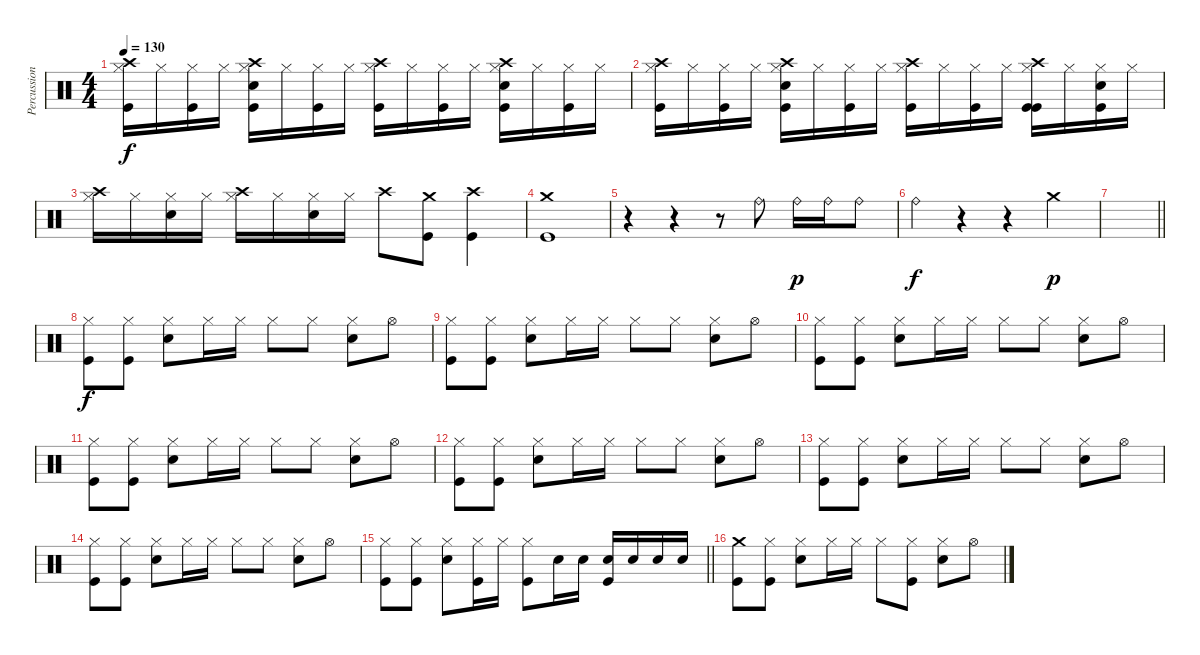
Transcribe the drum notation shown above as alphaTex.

\track ("Percussion" "Percussion") {instrument percussion}
\staff {score}
\articulation defaults
\ts (4 4)
\tempo 130
\clef neutral
\ks c
("Crash high (hit)" "Hi-Hat (closed)" "Kick (hit)").16{dy f} "Hi-Hat (closed)".16 ("Hi-Hat (closed)" "Kick (hit)").16 "Hi-Hat (closed)".16 ("Crash high (hit)" "Hi-Hat (closed)" "Electric Snare (hit)" "Kick (hit)").16 "Hi-Hat (closed)".16 ("Hi-Hat (closed)" "Kick (hit)").16 "Hi-Hat (closed)".16 ("Crash high (hit)" "Hi-Hat (closed)" "Kick (hit)").16 "Hi-Hat (closed)".16 ("Hi-Hat (closed)" "Kick (hit)").16 "Hi-Hat (closed)".16 ("Crash high (hit)" "Hi-Hat (closed)" "Electric Snare (hit)" "Kick (hit)").16 "Hi-Hat (closed)".16 ("Hi-Hat (closed)" "Kick (hit)").16 "Hi-Hat (closed)".16 |
("Crash high (hit)" "Hi-Hat (closed)" "Kick (hit)").16 "Hi-Hat (closed)".16 ("Hi-Hat (closed)" "Kick (hit)").16 "Hi-Hat (closed)".16 ("Crash high (hit)" "Hi-Hat (closed)" "Electric Snare (hit)" "Kick (hit)").16 "Hi-Hat (closed)".16 ("Hi-Hat (closed)" "Kick (hit)").16 "Hi-Hat (closed)".16 ("Crash high (hit)" "Hi-Hat (closed)" "Kick (hit)").16 "Hi-Hat (closed)".16 ("Hi-Hat (closed)" "Kick (hit)").16 "Hi-Hat (closed)".16 ("Crash high (hit)" "Hi-Hat (closed)" "Kick (hit)" "Kick (hit)").16 "Hi-Hat (closed)".16 ("Hi-Hat (closed)" "Electric Snare (hit)" "Kick (hit)").16 "Hi-Hat (closed)".16 |
("Crash high (hit)" "Hi-Hat (closed)").16 "Hi-Hat (closed)".16 ("Hi-Hat (closed)" "Electric Snare (hit)").16 "Hi-Hat (closed)".16 ("Crash high (hit)" "Hi-Hat (closed)").16 "Hi-Hat (closed)".16 ("Hi-Hat (closed)" "Electric Snare (hit)").16 "Hi-Hat (closed)".16 "Crash high (hit)".8 ("Crash medium (hit)" "Kick (hit)").8 ("Crash high (hit)" "Kick (hit)").4 |
("Crash medium (hit)" "Kick (hit)").1 |
r.4 r.4 r.8 "Ride (bell)".8 "Ride (bell)".16{dy p} "Ride (bell)".16 "Ride (bell)".8 |
"Ride (bell)".4{dy f} r.4 r.4 "Crash medium (hit)".4{dy p} |
\barLineRight lightlight
|
("Hi-Hat (closed)" "Kick (hit)").8{dy f} ("Hi-Hat (closed)" "Kick (hit)").8 ("Hi-Hat (closed)" "Electric Snare (hit)").8 "Hi-Hat (closed)".16 "Hi-Hat (closed)".16 "Hi-Hat (closed)".8 "Hi-Hat (closed)".8 ("Hi-Hat (closed)" "Electric Snare (hit)").8 "Hi-Hat (open)".8 |
("Hi-Hat (closed)" "Kick (hit)").8 ("Hi-Hat (closed)" "Kick (hit)").8 ("Hi-Hat (closed)" "Electric Snare (hit)").8 "Hi-Hat (closed)".16 "Hi-Hat (closed)".16 "Hi-Hat (closed)".8 "Hi-Hat (closed)".8 ("Hi-Hat (closed)" "Electric Snare (hit)").8 "Hi-Hat (open)".8 |
("Hi-Hat (closed)" "Kick (hit)").8 ("Hi-Hat (closed)" "Kick (hit)").8 ("Hi-Hat (closed)" "Electric Snare (hit)").8 "Hi-Hat (closed)".16 "Hi-Hat (closed)".16 "Hi-Hat (closed)".8 "Hi-Hat (closed)".8 ("Hi-Hat (closed)" "Electric Snare (hit)").8 "Hi-Hat (open)".8 |
("Hi-Hat (closed)" "Kick (hit)").8 ("Hi-Hat (closed)" "Kick (hit)").8 ("Hi-Hat (closed)" "Electric Snare (hit)").8 "Hi-Hat (closed)".16 "Hi-Hat (closed)".16 "Hi-Hat (closed)".8 "Hi-Hat (closed)".8 ("Hi-Hat (closed)" "Electric Snare (hit)").8 "Hi-Hat (open)".8 |
("Hi-Hat (closed)" "Kick (hit)").8 ("Hi-Hat (closed)" "Kick (hit)").8 ("Hi-Hat (closed)" "Electric Snare (hit)").8 "Hi-Hat (closed)".16 "Hi-Hat (closed)".16 "Hi-Hat (closed)".8 "Hi-Hat (closed)".8 ("Hi-Hat (closed)" "Electric Snare (hit)").8 "Hi-Hat (open)".8 |
("Hi-Hat (closed)" "Kick (hit)").8 ("Hi-Hat (closed)" "Kick (hit)").8 ("Hi-Hat (closed)" "Electric Snare (hit)").8 "Hi-Hat (closed)".16 "Hi-Hat (closed)".16 "Hi-Hat (closed)".8 "Hi-Hat (closed)".8 ("Hi-Hat (closed)" "Electric Snare (hit)").8 "Hi-Hat (open)".8 |
("Hi-Hat (closed)" "Kick (hit)").8 ("Hi-Hat (closed)" "Kick (hit)").8 ("Hi-Hat (closed)" "Electric Snare (hit)").8 "Hi-Hat (closed)".16 "Hi-Hat (closed)".16 "Hi-Hat (closed)".8 "Hi-Hat (closed)".8 ("Hi-Hat (closed)" "Electric Snare (hit)").8 "Hi-Hat (open)".8 |
\barLineRight lightlight
("Hi-Hat (closed)" "Kick (hit)").8 ("Hi-Hat (closed)" "Kick (hit)").8 ("Hi-Hat (closed)" "Electric Snare (hit)").8 ("Hi-Hat (closed)" "Kick (hit)").16 "Hi-Hat (closed)".16 ("Hi-Hat (closed)" "Kick (hit)").8 "Electric Snare (hit)".16 "Electric Snare (hit)".16 ("Electric Snare (hit)" "Kick (hit)").16 "Electric Snare (hit)".16 "Electric Snare (hit)".16 "Electric Snare (hit)".16 |
("Crash medium (hit)" "Kick (hit)").8 ("Hi-Hat (closed)" "Kick (hit)").8 ("Hi-Hat (closed)" "Electric Snare (hit)").8 "Hi-Hat (closed)".16 "Hi-Hat (closed)".16 "Hi-Hat (closed)".8 ("Hi-Hat (closed)" "Kick (hit)").8 ("Hi-Hat (closed)" "Electric Snare (hit)").8 "Hi-Hat (open)".8
